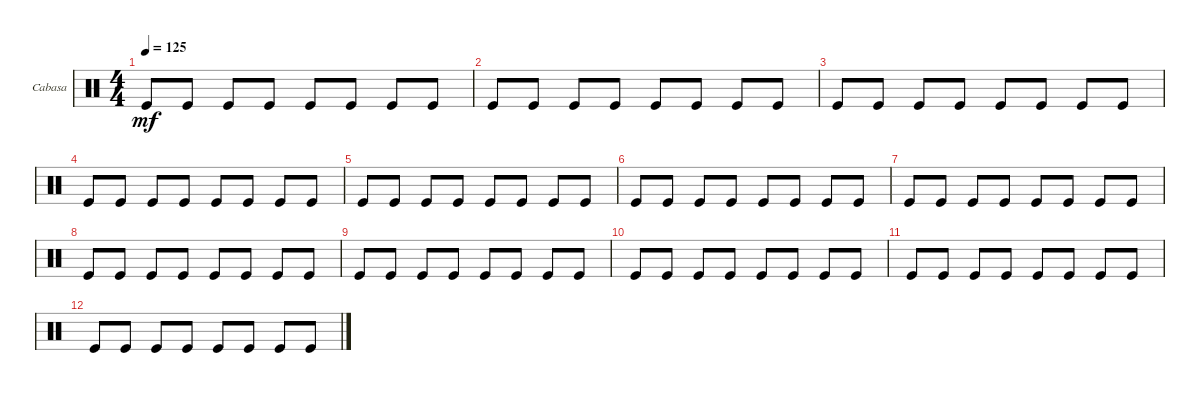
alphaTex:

\defaultSystemsLayout 4
\bracketExtendMode groupsimilarinstruments
\firstSystemTrackNameOrientation horizontal
\otherSystemsTrackNameOrientation horizontal
\track ("Cabasa" "Cabasa") {instrument percussion}
\staff {score}
\articulation defaults
\ts (4 4)
\tempo 125
\clef neutral
\ks c "Kick (hit)".8{dy mf} "Kick (hit)".8 "Kick (hit)".8 "Kick (hit)".8 "Kick (hit)".8 "Kick (hit)".8 "Kick (hit)".8 "Kick (hit)".8
|
"Kick (hit)".8 "Kick (hit)".8 "Kick (hit)".8 "Kick (hit)".8 "Kick (hit)".8 "Kick (hit)".8 "Kick (hit)".8 "Kick (hit)".8 |
"Kick (hit)".8 "Kick (hit)".8 "Kick (hit)".8 "Kick (hit)".8 "Kick (hit)".8 "Kick (hit)".8 "Kick (hit)".8 "Kick (hit)".8 |
"Kick (hit)".8 "Kick (hit)".8 "Kick (hit)".8 "Kick (hit)".8 "Kick (hit)".8 "Kick (hit)".8 "Kick (hit)".8 "Kick (hit)".8 |
"Kick (hit)".8 "Kick (hit)".8 "Kick (hit)".8 "Kick (hit)".8 "Kick (hit)".8 "Kick (hit)".8 "Kick (hit)".8 "Kick (hit)".8 |
"Kick (hit)".8 "Kick (hit)".8 "Kick (hit)".8 "Kick (hit)".8 "Kick (hit)".8 "Kick (hit)".8 "Kick (hit)".8 "Kick (hit)".8 |
"Kick (hit)".8 "Kick (hit)".8 "Kick (hit)".8 "Kick (hit)".8 "Kick (hit)".8 "Kick (hit)".8 "Kick (hit)".8 "Kick (hit)".8 |
"Kick (hit)".8 "Kick (hit)".8 "Kick (hit)".8 "Kick (hit)".8 "Kick (hit)".8 "Kick (hit)".8 "Kick (hit)".8 "Kick (hit)".8 |
"Kick (hit)".8 "Kick (hit)".8 "Kick (hit)".8 "Kick (hit)".8 "Kick (hit)".8 "Kick (hit)".8 "Kick (hit)".8 "Kick (hit)".8 |
"Kick (hit)".8 "Kick (hit)".8 "Kick (hit)".8 "Kick (hit)".8 "Kick (hit)".8 "Kick (hit)".8 "Kick (hit)".8 "Kick (hit)".8 |
"Kick (hit)".8 "Kick (hit)".8 "Kick (hit)".8 "Kick (hit)".8 "Kick (hit)".8 "Kick (hit)".8 "Kick (hit)".8 "Kick (hit)".8 |
"Kick (hit)".8 "Kick (hit)".8 "Kick (hit)".8 "Kick (hit)".8 "Kick (hit)".8 "Kick (hit)".8 "Kick (hit)".8 "Kick (hit)".8
